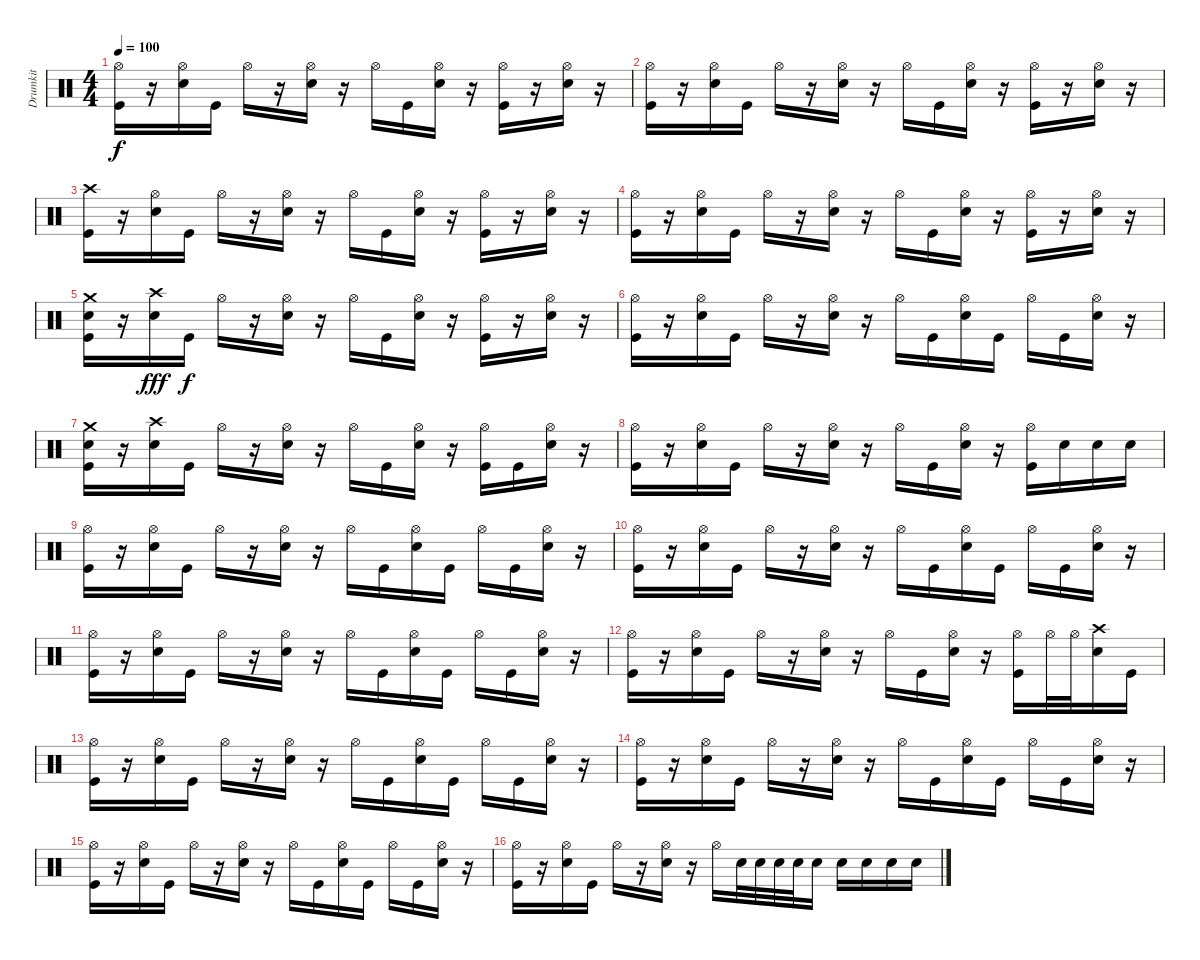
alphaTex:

\track ("Drumkit" "Drumkit") {solo instrument percussion}
\staff {score}
\articulation defaults
\ts (4 4)
\tempo 100
\clef neutral
\ks c
("Hi-Hat (open)" "Kick (hit)").16{dy f} r.16 ("Hi-Hat (open)" "Snare (hit) 2").16 "Kick (hit)".16 "Hi-Hat (open)".16 r.16 ("Hi-Hat (open)" "Snare (hit) 2").16 r.16 "Hi-Hat (open)".16 "Kick (hit)".16 ("Hi-Hat (open)" "Snare (hit) 2").16 r.16 ("Hi-Hat (open)" "Kick (hit)").16 r.16 ("Hi-Hat (open)" "Snare (hit) 2").16 r.16 |
("Hi-Hat (open)" "Kick (hit)").16 r.16 ("Hi-Hat (open)" "Snare (hit) 2").16 "Kick (hit)".16 "Hi-Hat (open)".16 r.16 ("Hi-Hat (open)" "Snare (hit) 2").16 r.16 "Hi-Hat (open)".16 "Kick (hit)".16 ("Hi-Hat (open)" "Snare (hit) 2").16 r.16 ("Hi-Hat (open)" "Kick (hit)").16 r.16 ("Hi-Hat (open)" "Snare (hit) 2").16 r.16 |
("Crash high (hit)" "Kick (hit)").16 r.16 ("Hi-Hat (open)" "Snare (hit) 2").16 "Kick (hit)".16 "Hi-Hat (open)".16 r.16 ("Hi-Hat (open)" "Snare (hit) 2").16 r.16 "Hi-Hat (open)".16 "Kick (hit)".16 ("Hi-Hat (open)" "Snare (hit) 2").16 r.16 ("Hi-Hat (open)" "Kick (hit)").16 r.16 ("Hi-Hat (open)" "Snare (hit) 2").16 r.16 |
("Hi-Hat (open)" "Kick (hit)").16 r.16 ("Hi-Hat (open)" "Snare (hit) 2").16 "Kick (hit)".16 "Hi-Hat (open)".16 r.16 ("Hi-Hat (open)" "Snare (hit) 2").16 r.16 "Hi-Hat (open)".16 "Kick (hit)".16 ("Hi-Hat (open)" "Snare (hit) 2").16 r.16 ("Hi-Hat (open)" "Kick (hit)").16 r.16 ("Hi-Hat (open)" "Snare (hit) 2").16 r.16 |
("Crash medium (hit)" "Snare (hit) 2" "Kick (hit)").16 r.16 ("Crash high (hit)" "Snare (hit) 2").16{dy fff} "Kick (hit)".16{dy f} "Hi-Hat (open)".16 r.16 ("Hi-Hat (open)" "Snare (hit) 2").16 r.16 "Hi-Hat (open)".16 "Kick (hit)".16 ("Hi-Hat (open)" "Snare (hit) 2").16 r.16 ("Hi-Hat (open)" "Kick (hit)").16 r.16 ("Hi-Hat (open)" "Snare (hit) 2").16 r.16 |
("Hi-Hat (open)" "Kick (hit)").16 r.16 ("Hi-Hat (open)" "Snare (hit) 2").16 "Kick (hit)".16 "Hi-Hat (open)".16 r.16 ("Hi-Hat (open)" "Snare (hit) 2").16 r.16 "Hi-Hat (open)".16 "Kick (hit)".16 ("Hi-Hat (open)" "Snare (hit) 2").16 "Kick (hit)".16 "Hi-Hat (open)".16 "Kick (hit)".16 ("Hi-Hat (open)" "Snare (hit) 2").16 r.16 |
("Crash medium (hit)" "Snare (hit) 2" "Kick (hit)").16 r.16 ("Crash high (hit)" "Snare (hit) 2").16 "Kick (hit)".16 "Hi-Hat (open)".16 r.16 ("Hi-Hat (open)" "Snare (hit) 2").16 r.16 "Hi-Hat (open)".16 "Kick (hit)".16 ("Hi-Hat (open)" "Snare (hit) 2").16 r.16 ("Hi-Hat (open)" "Kick (hit)").16 "Kick (hit)".16 ("Hi-Hat (open)" "Snare (hit) 2").16 r.16 |
("Hi-Hat (open)" "Kick (hit)").16 r.16 ("Hi-Hat (open)" "Snare (hit) 2").16 "Kick (hit)".16 "Hi-Hat (open)".16 r.16 ("Hi-Hat (open)" "Snare (hit) 2").16 r.16 "Hi-Hat (open)".16 "Kick (hit)".16 ("Hi-Hat (open)" "Snare (hit) 2").16 r.16 ("Hi-Hat (open)" "Kick (hit)").16 "Snare (hit) 2".16 "Snare (hit) 2".16 "Snare (hit) 2".16 |
("Hi-Hat (open)" "Kick (hit)").16 r.16 ("Hi-Hat (open)" "Snare (hit) 2").16 "Kick (hit)".16 "Hi-Hat (open)".16 r.16 ("Hi-Hat (open)" "Snare (hit) 2").16 r.16 "Hi-Hat (open)".16 "Kick (hit)".16 ("Hi-Hat (open)" "Snare (hit) 2").16 "Kick (hit)".16 "Hi-Hat (open)".16 "Kick (hit)".16 ("Hi-Hat (open)" "Snare (hit) 2").16 r.16 |
("Hi-Hat (open)" "Kick (hit)").16 r.16 ("Hi-Hat (open)" "Snare (hit) 2").16 "Kick (hit)".16 "Hi-Hat (open)".16 r.16 ("Hi-Hat (open)" "Snare (hit) 2").16 r.16 "Hi-Hat (open)".16 "Kick (hit)".16 ("Hi-Hat (open)" "Snare (hit) 2").16 "Kick (hit)".16 "Hi-Hat (open)".16 "Kick (hit)".16 ("Hi-Hat (open)" "Snare (hit) 2").16 r.16 |
("Hi-Hat (open)" "Kick (hit)").16 r.16 ("Hi-Hat (open)" "Snare (hit) 2").16 "Kick (hit)".16 "Hi-Hat (open)".16 r.16 ("Hi-Hat (open)" "Snare (hit) 2").16 r.16 "Hi-Hat (open)".16 "Kick (hit)".16 ("Hi-Hat (open)" "Snare (hit) 2").16 "Kick (hit)".16 "Hi-Hat (open)".16 "Kick (hit)".16 ("Hi-Hat (open)" "Snare (hit) 2").16 r.16 |
("Hi-Hat (open)" "Kick (hit)").16 r.16 ("Hi-Hat (open)" "Snare (hit) 2").16 "Kick (hit)".16 "Hi-Hat (open)".16 r.16 ("Hi-Hat (open)" "Snare (hit) 2").16 r.16 "Hi-Hat (open)".16 "Kick (hit)".16 ("Hi-Hat (open)" "Snare (hit) 2").16 r.16 ("Hi-Hat (open)" "Kick (hit)").16 "Hi-Hat (open)".32 "Hi-Hat (open)".32 ("Crash high (hit)" "Snare (hit) 2").16 "Kick (hit)".16 |
("Hi-Hat (open)" "Kick (hit)").16 r.16 ("Hi-Hat (open)" "Snare (hit) 2").16 "Kick (hit)".16 "Hi-Hat (open)".16 r.16 ("Hi-Hat (open)" "Snare (hit) 2").16 r.16 "Hi-Hat (open)".16 "Kick (hit)".16 ("Hi-Hat (open)" "Snare (hit) 2").16 "Kick (hit)".16 "Hi-Hat (open)".16 "Kick (hit)".16 ("Hi-Hat (open)" "Snare (hit) 2").16 r.16 |
("Hi-Hat (open)" "Kick (hit)").16 r.16 ("Hi-Hat (open)" "Snare (hit) 2").16 "Kick (hit)".16 "Hi-Hat (open)".16 r.16 ("Hi-Hat (open)" "Snare (hit) 2").16 r.16 "Hi-Hat (open)".16 "Kick (hit)".16 ("Hi-Hat (open)" "Snare (hit) 2").16 "Kick (hit)".16 "Hi-Hat (open)".16 "Kick (hit)".16 ("Hi-Hat (open)" "Snare (hit) 2").16 r.16 |
("Hi-Hat (open)" "Kick (hit)").16 r.16 ("Hi-Hat (open)" "Snare (hit) 2").16 "Kick (hit)".16 "Hi-Hat (open)".16 r.16 ("Hi-Hat (open)" "Snare (hit) 2").16 r.16 "Hi-Hat (open)".16 "Kick (hit)".16 ("Hi-Hat (open)" "Snare (hit) 2").16 "Kick (hit)".16 "Hi-Hat (open)".16 "Kick (hit)".16 ("Hi-Hat (open)" "Snare (hit) 2").16 r.16 |
("Hi-Hat (open)" "Kick (hit)").16 r.16 ("Hi-Hat (open)" "Snare (hit) 2").16 "Kick (hit)".16 "Hi-Hat (open)".16 r.16 ("Hi-Hat (open)" "Snare (hit) 2").16 r.16 "Hi-Hat (open)".16 "Snare (hit) 2".32 "Snare (hit) 2".32 "Snare (hit) 2".32 "Snare (hit) 2".32 "Snare (hit) 2".16 "Snare (hit) 2".16 "Snare (hit) 2".16 "Snare (hit) 2".16 "Snare (hit) 2".16
